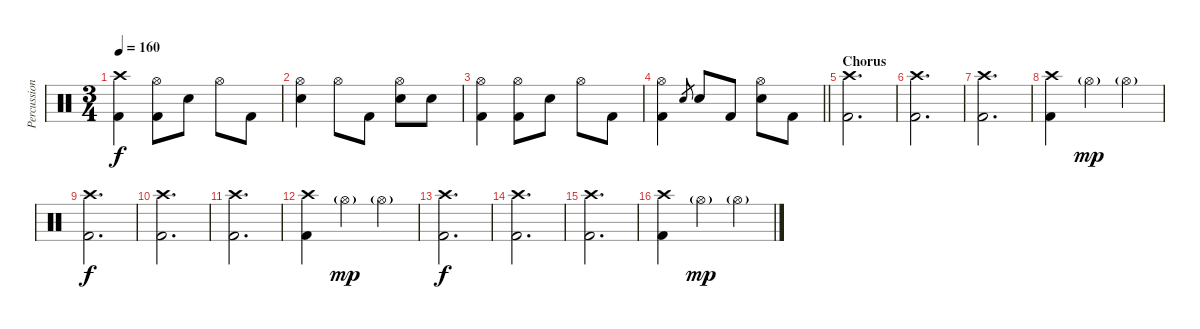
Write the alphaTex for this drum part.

\track ("Percussion" "Percussion") {instrument percussion}
\staff {score}
\articulation defaults
\ts (3 4)
\tempo 160
\clef neutral
\ks c
("Crash high (hit)" "Kick (hit) 2").4{dy f} ("Hi-Hat (open)" "Kick (hit) 2").8 "Snare (hit) 2".8 "Hi-Hat (open)".8 "Kick (hit) 2".8 |
("Hi-Hat (open)" "Snare (hit) 2").4 "Hi-Hat (open)".8 "Kick (hit) 2".8 ("Hi-Hat (open)" "Snare (hit) 2").8 "Snare (hit) 2".8 |
("Hi-Hat (open)" "Kick (hit) 2").4 ("Hi-Hat (open)" "Kick (hit) 2").8 "Snare (hit) 2".8 "Hi-Hat (open)".8 "Kick (hit) 2".8 |
\barLineRight lightlight
("Hi-Hat (open)" "Kick (hit) 2").4 "Snare (hit) 2".8{gr} "Snare (hit) 2".8 "Kick (hit) 2".8 ("Hi-Hat (open)" "Snare (hit) 2").8 "Kick (hit) 2".8 |
\section ("" "Chorus")
("Crash high (hit)" "Kick (hit) 2").2{d} |
("Crash high (hit)" "Kick (hit) 2").2{d} |
("Crash high (hit)" "Kick (hit) 2").2{d} |
("Crash high (hit)" "Kick (hit) 2").4 "Hi-Hat (open)"{g}.4{dy mp} "Hi-Hat (open)"{g}.4 |
("Crash high (hit)" "Kick (hit) 2").2{d dy f} |
("Crash high (hit)" "Kick (hit) 2").2{d} |
("Crash high (hit)" "Kick (hit) 2").2{d} |
("Crash high (hit)" "Kick (hit) 2").4 "Hi-Hat (open)"{g}.4{dy mp} "Hi-Hat (open)"{g}.4 |
("Crash high (hit)" "Kick (hit) 2").2{d dy f} |
("Crash high (hit)" "Kick (hit) 2").2{d} |
("Crash high (hit)" "Kick (hit) 2").2{d} |
("Crash high (hit)" "Kick (hit) 2").4 "Hi-Hat (open)"{g}.4{dy mp} "Hi-Hat (open)"{g}.4
